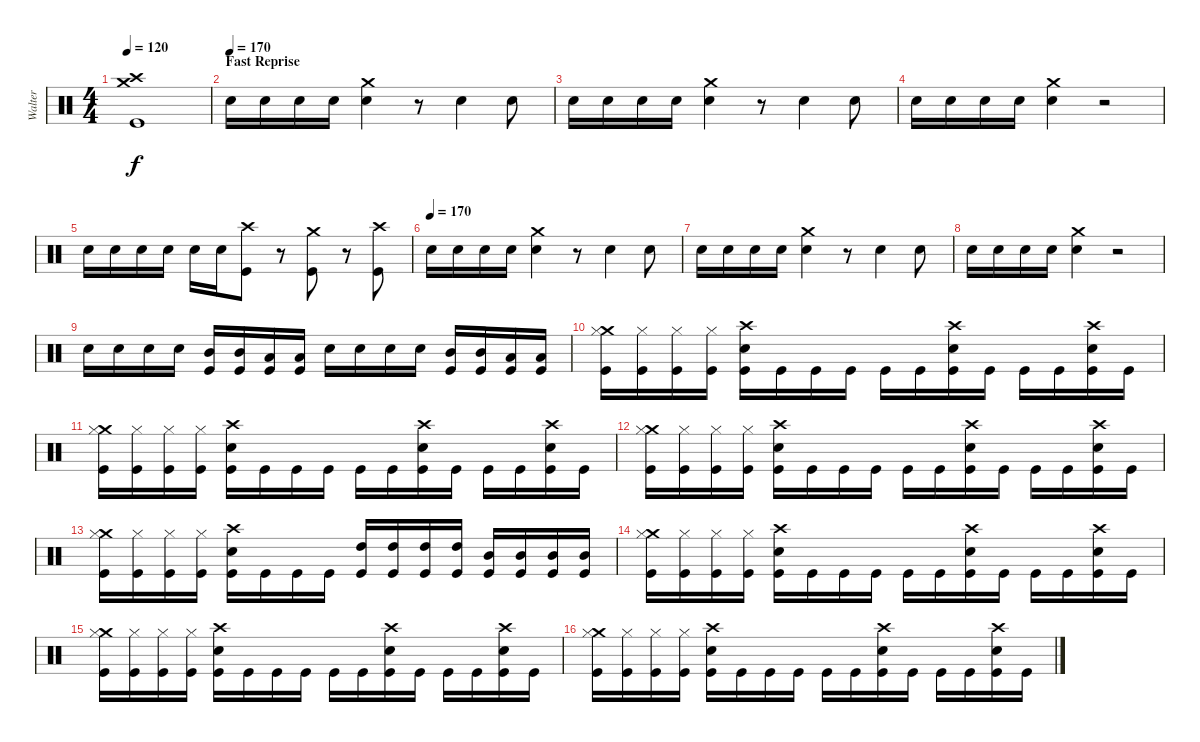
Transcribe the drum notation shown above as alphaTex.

\track ("Walter" "Walter") {instrument percussion}
\staff {score}
\articulation defaults
\ts (4 4)
\tempo 120
\clef neutral
\ks c
("Crash medium (hit)" "Crash high (hit)" "Kick (hit)").1{dy f} |
\section ("" "Fast Reprise")
\tempo (170)
"Electric Snare (hit)".16 "Electric Snare (hit)".16 "Electric Snare (hit)".16 "Electric Snare (hit)".16 ("Crash medium (hit)" "Electric Snare (hit)").4 r.8 "Electric Snare (hit)".4 "Electric Snare (hit)".8 |
"Electric Snare (hit)".16 "Electric Snare (hit)".16 "Electric Snare (hit)".16 "Electric Snare (hit)".16 ("Crash medium (hit)" "Electric Snare (hit)").4 r.8 "Electric Snare (hit)".4 "Electric Snare (hit)".8 |
"Electric Snare (hit)".16 "Electric Snare (hit)".16 "Electric Snare (hit)".16 "Electric Snare (hit)".16 ("Crash medium (hit)" "Electric Snare (hit)").4 r.2 |
"Electric Snare (hit)".16 "Electric Snare (hit)".16 "Electric Snare (hit)".16 "Electric Snare (hit)".16 "Electric Snare (hit)".16 "Electric Snare (hit)".16 ("Crash high (hit)" "Kick (hit)").8 r.8 ("Crash medium (hit)" "Kick (hit)").8 r.8 ("Crash high (hit)" "Kick (hit)").8 |
\tempo (170)
"Electric Snare (hit)".16 "Electric Snare (hit)".16 "Electric Snare (hit)".16 "Electric Snare (hit)".16 ("Crash medium (hit)" "Electric Snare (hit)").4 r.8 "Electric Snare (hit)".4 "Electric Snare (hit)".8 |
"Electric Snare (hit)".16 "Electric Snare (hit)".16 "Electric Snare (hit)".16 "Electric Snare (hit)".16 ("Crash medium (hit)" "Electric Snare (hit)").4 r.8 "Electric Snare (hit)".4 "Electric Snare (hit)".8 |
"Electric Snare (hit)".16 "Electric Snare (hit)".16 "Electric Snare (hit)".16 "Electric Snare (hit)".16 ("Crash medium (hit)" "Electric Snare (hit)").4 r.2 |
"Electric Snare (hit)".16 "Electric Snare (hit)".16 "Electric Snare (hit)".16 "Electric Snare (hit)".16 ("Mid Tom (hit)" "Kick (hit)").16 ("Mid Tom (hit)" "Kick (hit)").16 ("Low Tom (hit)" "Kick (hit)").16 ("Low Tom (hit)" "Kick (hit)").16 "Electric Snare (hit)".16 "Electric Snare (hit)".16 "Electric Snare (hit)".16 "Electric Snare (hit)".16 ("Mid Tom (hit)" "Kick (hit)").16 ("Mid Tom (hit)" "Kick (hit)").16 ("Low Tom (hit)" "Kick (hit)").16 ("Low Tom (hit)" "Kick (hit)").16 |
("Crash medium (hit)" "Hi-Hat (closed)" "Kick (hit)").16 ("Hi-Hat (closed)" "Kick (hit)").16 ("Hi-Hat (closed)" "Kick (hit)").16 ("Hi-Hat (closed)" "Kick (hit)").16 ("Crash high (hit)" "Electric Snare (hit)" "Kick (hit)").16 "Kick (hit)".16 "Kick (hit)".16 "Kick (hit)".16 "Kick (hit)".16 "Kick (hit)".16 ("Crash high (hit)" "Electric Snare (hit)" "Kick (hit)").16 "Kick (hit)".16 "Kick (hit)".16 "Kick (hit)".16 ("Crash high (hit)" "Electric Snare (hit)" "Kick (hit)").16 "Kick (hit)".16 |
("Crash medium (hit)" "Hi-Hat (closed)" "Kick (hit)").16 ("Hi-Hat (closed)" "Kick (hit)").16 ("Hi-Hat (closed)" "Kick (hit)").16 ("Hi-Hat (closed)" "Kick (hit)").16 ("Crash high (hit)" "Electric Snare (hit)" "Kick (hit)").16 "Kick (hit)".16 "Kick (hit)".16 "Kick (hit)".16 "Kick (hit)".16 "Kick (hit)".16 ("Crash high (hit)" "Electric Snare (hit)" "Kick (hit)").16 "Kick (hit)".16 "Kick (hit)".16 "Kick (hit)".16 ("Crash high (hit)" "Electric Snare (hit)" "Kick (hit)").16 "Kick (hit)".16 |
("Crash medium (hit)" "Hi-Hat (closed)" "Kick (hit)").16 ("Hi-Hat (closed)" "Kick (hit)").16 ("Hi-Hat (closed)" "Kick (hit)").16 ("Hi-Hat (closed)" "Kick (hit)").16 ("Crash high (hit)" "Electric Snare (hit)" "Kick (hit)").16 "Kick (hit)".16 "Kick (hit)".16 "Kick (hit)".16 "Kick (hit)".16 "Kick (hit)".16 ("Crash high (hit)" "Electric Snare (hit)" "Kick (hit)").16 "Kick (hit)".16 "Kick (hit)".16 "Kick (hit)".16 ("Crash high (hit)" "Electric Snare (hit)" "Kick (hit)").16 "Kick (hit)".16 |
("Crash medium (hit)" "Hi-Hat (closed)" "Kick (hit)").16 ("Hi-Hat (closed)" "Kick (hit)").16 ("Hi-Hat (closed)" "Kick (hit)").16 ("Hi-Hat (closed)" "Kick (hit)").16 ("Crash high (hit)" "Electric Snare (hit)" "Kick (hit)").16 "Kick (hit)".16 "Kick (hit)".16 "Kick (hit)".16 ("High Tom (hit)" "Kick (hit)").16 ("High Tom (hit)" "Kick (hit)").16 ("High Tom (hit)" "Kick (hit)").16 ("High Tom (hit)" "Kick (hit)").16 ("Mid Tom (hit)" "Kick (hit)").16 ("Mid Tom (hit)" "Kick (hit)").16 ("Mid Tom (hit)" "Kick (hit)").16 ("Mid Tom (hit)" "Kick (hit)").16 |
("Crash medium (hit)" "Hi-Hat (closed)" "Kick (hit)").16 ("Hi-Hat (closed)" "Kick (hit)").16 ("Hi-Hat (closed)" "Kick (hit)").16 ("Hi-Hat (closed)" "Kick (hit)").16 ("Crash high (hit)" "Electric Snare (hit)" "Kick (hit)").16 "Kick (hit)".16 "Kick (hit)".16 "Kick (hit)".16 "Kick (hit)".16 "Kick (hit)".16 ("Crash high (hit)" "Electric Snare (hit)" "Kick (hit)").16 "Kick (hit)".16 "Kick (hit)".16 "Kick (hit)".16 ("Crash high (hit)" "Electric Snare (hit)" "Kick (hit)").16 "Kick (hit)".16 |
("Crash medium (hit)" "Hi-Hat (closed)" "Kick (hit)").16 ("Hi-Hat (closed)" "Kick (hit)").16 ("Hi-Hat (closed)" "Kick (hit)").16 ("Hi-Hat (closed)" "Kick (hit)").16 ("Crash high (hit)" "Electric Snare (hit)" "Kick (hit)").16 "Kick (hit)".16 "Kick (hit)".16 "Kick (hit)".16 "Kick (hit)".16 "Kick (hit)".16 ("Crash high (hit)" "Electric Snare (hit)" "Kick (hit)").16 "Kick (hit)".16 "Kick (hit)".16 "Kick (hit)".16 ("Crash high (hit)" "Electric Snare (hit)" "Kick (hit)").16 "Kick (hit)".16 |
("Crash medium (hit)" "Hi-Hat (closed)" "Kick (hit)").16 ("Hi-Hat (closed)" "Kick (hit)").16 ("Hi-Hat (closed)" "Kick (hit)").16 ("Hi-Hat (closed)" "Kick (hit)").16 ("Crash high (hit)" "Electric Snare (hit)" "Kick (hit)").16 "Kick (hit)".16 "Kick (hit)".16 "Kick (hit)".16 "Kick (hit)".16 "Kick (hit)".16 ("Crash high (hit)" "Electric Snare (hit)" "Kick (hit)").16 "Kick (hit)".16 "Kick (hit)".16 "Kick (hit)".16 ("Crash high (hit)" "Electric Snare (hit)" "Kick (hit)").16 "Kick (hit)".16
